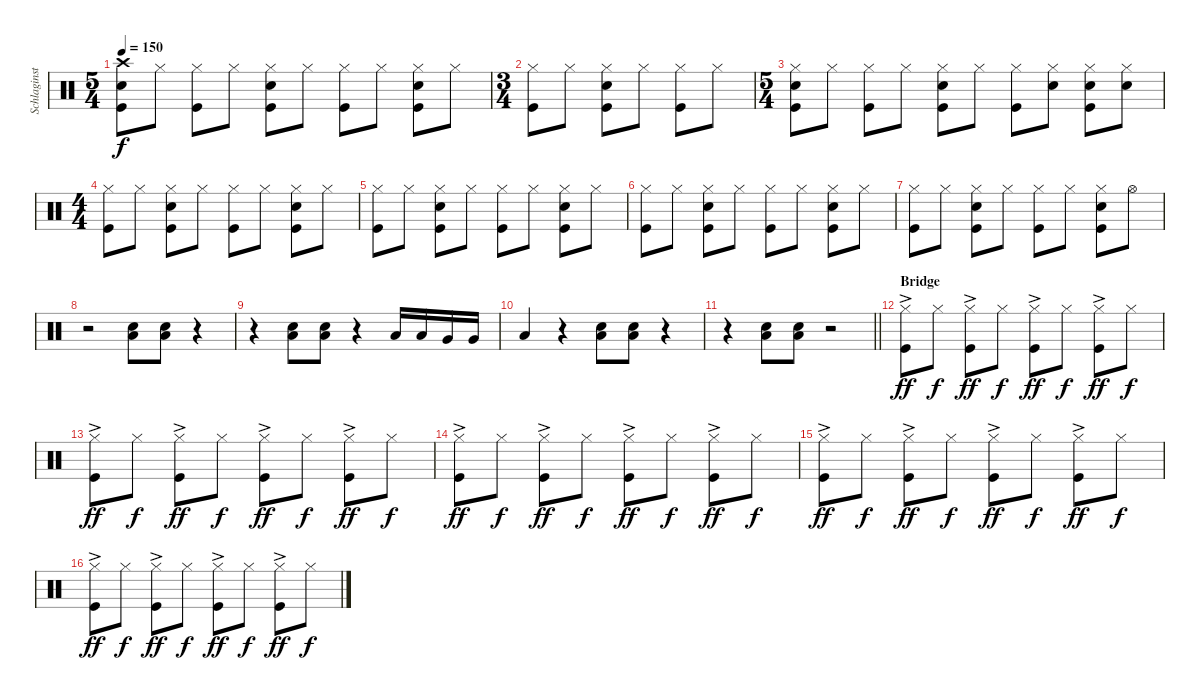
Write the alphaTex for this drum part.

\track ("Schlaginstrumente - Auswahl" "Schlaginst") {instrument percussion}
\staff {score}
\articulation defaults
\ts (5 4)
\tempo 150
\clef neutral
\ks c
("Crash high (hit)" "Snare (hit) 2" "Kick (hit)").8{dy f} "Hi-Hat (closed)".8 ("Kick (hit)" "Hi-Hat (closed)").8 "Hi-Hat (closed)".8 ("Hi-Hat (closed)" "Kick (hit)" "Snare (hit) 2").8 "Hi-Hat (closed)".8 ("Hi-Hat (closed)" "Kick (hit)").8 "Hi-Hat (closed)".8 ("Hi-Hat (closed)" "Kick (hit)" "Snare (hit) 2").8 "Hi-Hat (closed)".8 |
\ts (3 4)
("Kick (hit)" "Hi-Hat (closed)").8 "Hi-Hat (closed)".8 ("Hi-Hat (closed)" "Kick (hit)" "Snare (hit) 2").8 "Hi-Hat (closed)".8 ("Hi-Hat (closed)" "Kick (hit)").8 "Hi-Hat (closed)".8 |
\ts (5 4)
("Hi-Hat (closed)" "Kick (hit)" "Snare (hit) 2").8 "Hi-Hat (closed)".8 ("Kick (hit)" "Hi-Hat (closed)").8 "Hi-Hat (closed)".8 ("Hi-Hat (closed)" "Kick (hit)" "Snare (hit) 2").8 "Hi-Hat (closed)".8 ("Hi-Hat (closed)" "Kick (hit)").8 ("Hi-Hat (closed)" "Snare (hit) 2").8 ("Hi-Hat (closed)" "Kick (hit)" "Snare (hit) 2").8 ("Hi-Hat (closed)" "Snare (hit) 2").8 |
\ts (4 4)
("Kick (hit)" "Hi-Hat (closed)").8 "Hi-Hat (closed)".8 ("Hi-Hat (closed)" "Kick (hit)" "Snare (hit) 2").8 "Hi-Hat (closed)".8 ("Hi-Hat (closed)" "Kick (hit)").8 "Hi-Hat (closed)".8 ("Hi-Hat (closed)" "Kick (hit)" "Snare (hit) 2").8 "Hi-Hat (closed)".8 |
("Kick (hit)" "Hi-Hat (closed)").8 "Hi-Hat (closed)".8 ("Hi-Hat (closed)" "Kick (hit)" "Snare (hit) 2").8 "Hi-Hat (closed)".8 ("Hi-Hat (closed)" "Kick (hit)").8 "Hi-Hat (closed)".8 ("Hi-Hat (closed)" "Kick (hit)" "Snare (hit) 2").8 "Hi-Hat (closed)".8 |
("Kick (hit)" "Hi-Hat (closed)").8 "Hi-Hat (closed)".8 ("Hi-Hat (closed)" "Kick (hit)" "Snare (hit) 2").8 "Hi-Hat (closed)".8 ("Hi-Hat (closed)" "Kick (hit)").8 "Hi-Hat (closed)".8 ("Hi-Hat (closed)" "Kick (hit)" "Snare (hit) 2").8 "Hi-Hat (closed)".8 |
("Kick (hit)" "Hi-Hat (closed)").8 "Hi-Hat (closed)".8 ("Hi-Hat (closed)" "Kick (hit)" "Snare (hit) 2").8 "Hi-Hat (closed)".8 ("Hi-Hat (closed)" "Kick (hit)").8 "Hi-Hat (closed)".8 ("Hi-Hat (closed)" "Kick (hit)" "Snare (hit) 2").8 "Hi-Hat (open)".8 |
r.2 ("Snare (hit) 2" "Low Floor Tom (hit)").8 ("Low Floor Tom (hit)" "Snare (hit) 2").8 r.4 |
r.4 ("Snare (hit) 2" "Low Floor Tom (hit)").8 ("Low Floor Tom (hit)" "Snare (hit) 2").8 r.4 "Low Tom (hit)".16 "Low Tom (hit)".16 "Very Low Tom (hit)".16 "Very Low Tom (hit)".16 |
"Low Floor Tom (hit)".4 r.4 ("Snare (hit) 2" "Low Floor Tom (hit)").8 ("Low Floor Tom (hit)" "Snare (hit) 2").8 r.4 |
\barLineRight lightlight
r.4 ("Snare (hit) 2" "Low Floor Tom (hit)").8 ("Low Floor Tom (hit)" "Snare (hit) 2").8 r.2 |
\section ("" "Bridge")
("Hi-Hat (closed)"{ac} "Kick (hit)").8{dy ff} "Hi-Hat (closed)".8{dy f} ("Hi-Hat (closed)"{ac} "Kick (hit)").8{dy ff} "Hi-Hat (closed)".8{dy f} ("Hi-Hat (closed)"{ac} "Kick (hit)").8{dy ff} "Hi-Hat (closed)".8{dy f} ("Hi-Hat (closed)"{ac} "Kick (hit)").8{dy ff} "Hi-Hat (closed)".8{dy f} |
("Hi-Hat (closed)"{ac} "Kick (hit)").8{dy ff} "Hi-Hat (closed)".8{dy f} ("Hi-Hat (closed)"{ac} "Kick (hit)").8{dy ff} "Hi-Hat (closed)".8{dy f} ("Hi-Hat (closed)"{ac} "Kick (hit)").8{dy ff} "Hi-Hat (closed)".8{dy f} ("Hi-Hat (closed)"{ac} "Kick (hit)").8{dy ff} "Hi-Hat (closed)".8{dy f} |
("Hi-Hat (closed)"{ac} "Kick (hit)").8{dy ff} "Hi-Hat (closed)".8{dy f} ("Hi-Hat (closed)"{ac} "Kick (hit)").8{dy ff} "Hi-Hat (closed)".8{dy f} ("Hi-Hat (closed)"{ac} "Kick (hit)").8{dy ff} "Hi-Hat (closed)".8{dy f} ("Hi-Hat (closed)"{ac} "Kick (hit)").8{dy ff} "Hi-Hat (closed)".8{dy f} |
("Hi-Hat (closed)"{ac} "Kick (hit)").8{dy ff} "Hi-Hat (closed)".8{dy f} ("Hi-Hat (closed)"{ac} "Kick (hit)").8{dy ff} "Hi-Hat (closed)".8{dy f} ("Hi-Hat (closed)"{ac} "Kick (hit)").8{dy ff} "Hi-Hat (closed)".8{dy f} ("Hi-Hat (closed)"{ac} "Kick (hit)").8{dy ff} "Hi-Hat (closed)".8{dy f} |
("Hi-Hat (closed)"{ac} "Kick (hit)").8{dy ff} "Hi-Hat (closed)".8{dy f} ("Hi-Hat (closed)"{ac} "Kick (hit)").8{dy ff} "Hi-Hat (closed)".8{dy f} ("Hi-Hat (closed)"{ac} "Kick (hit)").8{dy ff} "Hi-Hat (closed)".8{dy f} ("Hi-Hat (closed)"{ac} "Kick (hit)").8{dy ff} "Hi-Hat (closed)".8{dy f}
